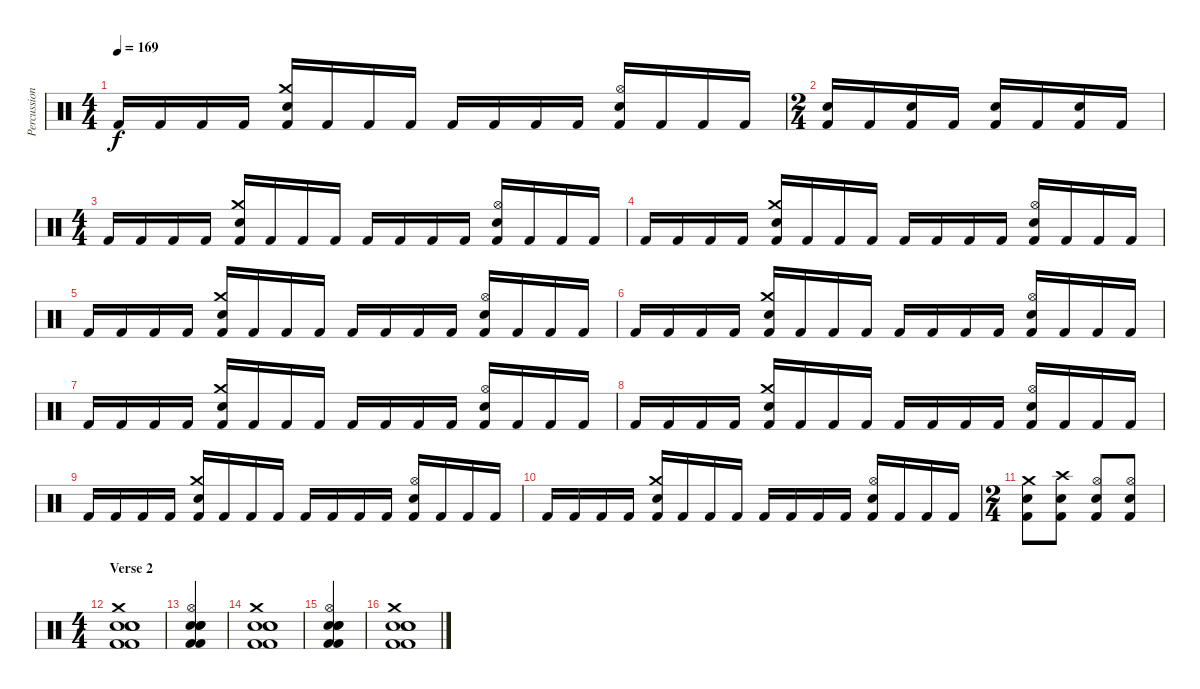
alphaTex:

\track ("Percussion" "Percussion") {instrument percussion}
\staff {score}
\articulation defaults
\ts (4 4)
\tempo 169
\clef neutral
\ks c "Kick (hit) 2".16{dy f} "Kick (hit) 2".16 "Kick (hit) 2".16 "Kick (hit) 2".16
("Crash medium (hit)" "Electric Snare (hit)" "Kick (hit) 2").16 "Kick (hit) 2".16 "Kick (hit) 2".16 "Kick (hit) 2".16 "Kick (hit) 2".16 "Kick (hit) 2".16 "Kick (hit) 2".16 "Kick (hit) 2".16 ("Hi-Hat (open)" "Snare (hit) 2" "Kick (hit) 2").16 "Kick (hit) 2".16 "Kick (hit) 2".16 "Kick (hit) 2".16 |
\ts (2 4)
("Snare (hit) 2" "Kick (hit) 2").16 "Kick (hit) 2".16 ("Snare (hit) 2" "Kick (hit) 2").16 "Kick (hit) 2".16 ("Snare (hit) 2" "Kick (hit) 2").16 "Kick (hit) 2".16 ("Snare (hit) 2" "Kick (hit) 2").16 "Kick (hit) 2".16 |
\ts (4 4)
"Kick (hit) 2".16 "Kick (hit) 2".16 "Kick (hit) 2".16 "Kick (hit) 2".16 ("Crash medium (hit)" "Electric Snare (hit)" "Kick (hit) 2").16 "Kick (hit) 2".16 "Kick (hit) 2".16 "Kick (hit) 2".16 "Kick (hit) 2".16 "Kick (hit) 2".16 "Kick (hit) 2".16 "Kick (hit) 2".16 ("Hi-Hat (open)" "Snare (hit) 2" "Kick (hit) 2").16 "Kick (hit) 2".16 "Kick (hit) 2".16 "Kick (hit) 2".16 |
"Kick (hit) 2".16 "Kick (hit) 2".16 "Kick (hit) 2".16 "Kick (hit) 2".16 ("Crash medium (hit)" "Electric Snare (hit)" "Kick (hit) 2").16 "Kick (hit) 2".16 "Kick (hit) 2".16 "Kick (hit) 2".16 "Kick (hit) 2".16 "Kick (hit) 2".16 "Kick (hit) 2".16 "Kick (hit) 2".16 ("Hi-Hat (open)" "Snare (hit) 2" "Kick (hit) 2").16 "Kick (hit) 2".16 "Kick (hit) 2".16 "Kick (hit) 2".16 |
"Kick (hit) 2".16 "Kick (hit) 2".16 "Kick (hit) 2".16 "Kick (hit) 2".16 ("Crash medium (hit)" "Electric Snare (hit)" "Kick (hit) 2").16 "Kick (hit) 2".16 "Kick (hit) 2".16 "Kick (hit) 2".16 "Kick (hit) 2".16 "Kick (hit) 2".16 "Kick (hit) 2".16 "Kick (hit) 2".16 ("Hi-Hat (open)" "Snare (hit) 2" "Kick (hit) 2").16 "Kick (hit) 2".16 "Kick (hit) 2".16 "Kick (hit) 2".16 |
"Kick (hit) 2".16 "Kick (hit) 2".16 "Kick (hit) 2".16 "Kick (hit) 2".16 ("Crash medium (hit)" "Electric Snare (hit)" "Kick (hit) 2").16 "Kick (hit) 2".16 "Kick (hit) 2".16 "Kick (hit) 2".16 "Kick (hit) 2".16 "Kick (hit) 2".16 "Kick (hit) 2".16 "Kick (hit) 2".16 ("Hi-Hat (open)" "Snare (hit) 2" "Kick (hit) 2").16 "Kick (hit) 2".16 "Kick (hit) 2".16 "Kick (hit) 2".16 |
"Kick (hit) 2".16 "Kick (hit) 2".16 "Kick (hit) 2".16 "Kick (hit) 2".16 ("Crash medium (hit)" "Electric Snare (hit)" "Kick (hit) 2").16 "Kick (hit) 2".16 "Kick (hit) 2".16 "Kick (hit) 2".16 "Kick (hit) 2".16 "Kick (hit) 2".16 "Kick (hit) 2".16 "Kick (hit) 2".16 ("Hi-Hat (open)" "Snare (hit) 2" "Kick (hit) 2").16 "Kick (hit) 2".16 "Kick (hit) 2".16 "Kick (hit) 2".16 |
"Kick (hit) 2".16 "Kick (hit) 2".16 "Kick (hit) 2".16 "Kick (hit) 2".16 ("Crash medium (hit)" "Electric Snare (hit)" "Kick (hit) 2").16 "Kick (hit) 2".16 "Kick (hit) 2".16 "Kick (hit) 2".16 "Kick (hit) 2".16 "Kick (hit) 2".16 "Kick (hit) 2".16 "Kick (hit) 2".16 ("Hi-Hat (open)" "Snare (hit) 2" "Kick (hit) 2").16 "Kick (hit) 2".16 "Kick (hit) 2".16 "Kick (hit) 2".16 |
"Kick (hit) 2".16 "Kick (hit) 2".16 "Kick (hit) 2".16 "Kick (hit) 2".16 ("Crash medium (hit)" "Electric Snare (hit)" "Kick (hit) 2").16 "Kick (hit) 2".16 "Kick (hit) 2".16 "Kick (hit) 2".16 "Kick (hit) 2".16 "Kick (hit) 2".16 "Kick (hit) 2".16 "Kick (hit) 2".16 ("Hi-Hat (open)" "Snare (hit) 2" "Kick (hit) 2").16 "Kick (hit) 2".16 "Kick (hit) 2".16 "Kick (hit) 2".16 |
"Kick (hit) 2".16 "Kick (hit) 2".16 "Kick (hit) 2".16 "Kick (hit) 2".16 ("Crash medium (hit)" "Electric Snare (hit)" "Kick (hit) 2").16 "Kick (hit) 2".16 "Kick (hit) 2".16 "Kick (hit) 2".16 "Kick (hit) 2".16 "Kick (hit) 2".16 "Kick (hit) 2".16 "Kick (hit) 2".16 ("Hi-Hat (open)" "Snare (hit) 2" "Kick (hit) 2").16 "Kick (hit) 2".16 "Kick (hit) 2".16 "Kick (hit) 2".16 |
\ts (2 4)
("Crash medium (hit)" "Snare (hit) 2" "Kick (hit) 2").8 ("Crash high (hit)" "Snare (hit) 2" "Kick (hit) 2").8 ("Hi-Hat (open)" "Snare (hit) 2" "Kick (hit) 2").8 ("Hi-Hat (open)" "Snare (hit) 2" "Kick (hit) 2").8 |
\ts (4 4)
\section ("" "Verse 2")
("Crash medium (hit)" "Electric Snare (hit)" "Snare (hit) 2" "Snare (hit) 2" "Kick (hit) 2" "Kick (hit) 2").1 |
("Hi-Hat (open)" "Electric Snare (hit)" "Snare (hit) 2" "Snare (hit) 2" "Kick (hit) 2" "Kick (hit) 2").4 |
("Crash medium (hit)" "Electric Snare (hit)" "Snare (hit) 2" "Snare (hit) 2" "Kick (hit) 2" "Kick (hit) 2").1 |
("Hi-Hat (open)" "Electric Snare (hit)" "Snare (hit) 2" "Snare (hit) 2" "Kick (hit) 2" "Kick (hit) 2").4 |
("Crash medium (hit)" "Electric Snare (hit)" "Snare (hit) 2" "Snare (hit) 2" "Kick (hit) 2" "Kick (hit) 2").1
